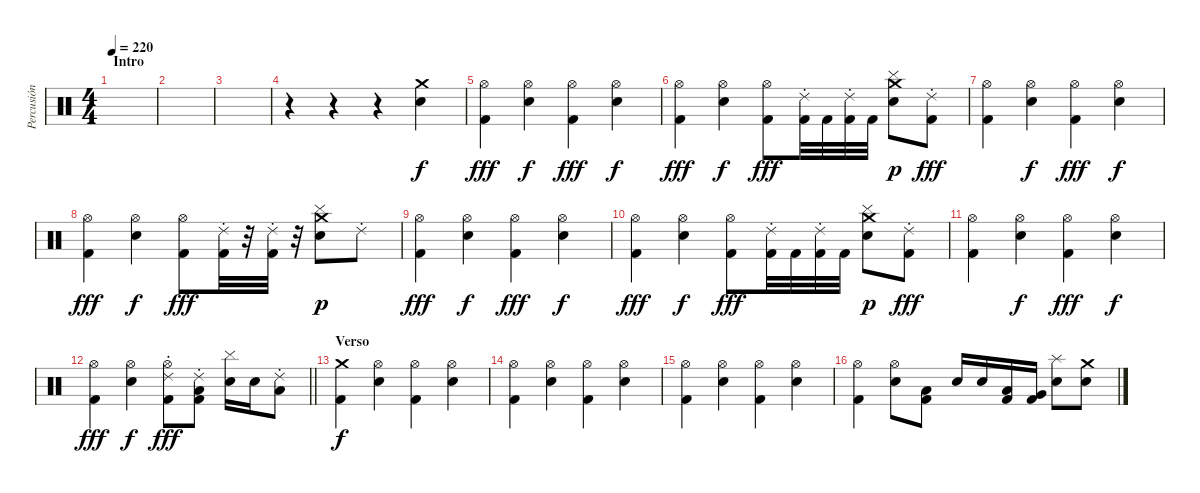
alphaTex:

\track ("Percusión" "Percusión") {instrument percussion}
\staff {score}
\articulation defaults
\ts (4 4)
\section ("" "Intro")
\tempo 220
\clef neutral
\ks c
|
|
|
r.4 r.4 r.4 ("Crash medium (hit)" "Snare (hit) 2").4 |
("Hi-Hat (open)" "Kick (hit) 2").4{dy fff} ("Hi-Hat (open)" "Snare (hit) 2").4{dy f} ("Hi-Hat (open)" "Kick (hit) 2").4{dy fff} ("Hi-Hat (open)" "Snare (hit) 2").4{dy f} |
("Hi-Hat (open)" "Kick (hit) 2").4{dy fff} ("Hi-Hat (open)" "Snare (hit) 2").4{dy f} ("Hi-Hat (open)" "Kick (hit) 2").8{dy fff} ("Ride (choke) 2" "Kick (hit) 2").32 "Kick (hit) 2".32 ("Ride (choke) 2" "Kick (hit) 2").32 "Kick (hit) 2".32 ("Crash medium (hit)" "Cymbal (hit)" "Snare (hit) 2").8{dy p} ("Ride (choke) 2" "Kick (hit) 2").8{dy fff} |
("Hi-Hat (open)" "Kick (hit) 2").4 ("Hi-Hat (open)" "Snare (hit) 2").4{dy f} ("Hi-Hat (open)" "Kick (hit) 2").4{dy fff} ("Hi-Hat (open)" "Snare (hit) 2").4{dy f} |
("Hi-Hat (open)" "Kick (hit) 2").4{dy fff} ("Hi-Hat (open)" "Snare (hit) 2").4{dy f} ("Hi-Hat (open)" "Kick (hit) 2").8{dy fff} ("Ride (choke) 2" "Kick (hit) 2").32 r.32 ("Ride (choke) 2" "Kick (hit) 2").32 r.32 ("Crash medium (hit)" "Cymbal (hit)" "Snare (hit) 2").8{dy p} "Ride (choke) 2".8 |
("Hi-Hat (open)" "Kick (hit) 2").4{dy fff} ("Hi-Hat (open)" "Snare (hit) 2").4{dy f} ("Hi-Hat (open)" "Kick (hit) 2").4{dy fff} ("Hi-Hat (open)" "Snare (hit) 2").4{dy f} |
("Hi-Hat (open)" "Kick (hit) 2").4{dy fff} ("Hi-Hat (open)" "Snare (hit) 2").4{dy f} ("Hi-Hat (open)" "Kick (hit) 2").8{dy fff} ("Ride (choke) 2" "Kick (hit) 2").32 "Kick (hit) 2".32 ("Ride (choke) 2" "Kick (hit) 2").32 "Kick (hit) 2".32 ("Crash medium (hit)" "Cymbal (hit)" "Snare (hit) 2").8{dy p} ("Ride (choke) 2" "Kick (hit) 2").8{dy fff} |
("Hi-Hat (open)" "Kick (hit) 2").4 ("Hi-Hat (open)" "Snare (hit) 2").4{dy f} ("Hi-Hat (open)" "Kick (hit) 2").4{dy fff} ("Hi-Hat (open)" "Snare (hit) 2").4{dy f} |
\barLineRight lightlight
("Hi-Hat (open)" "Kick (hit) 2").4{dy fff} ("Hi-Hat (open)" "Snare (hit) 2").4{dy f} ("Hi-Hat (open)" "Ride (choke) 2" "Kick (hit) 2").8{dy fff} ("Ride (choke) 2" "Low Floor Tom (hit)" "Kick (hit) 2").8 ("Cymbal (hit)" "Snare (hit) 2").16 "Snare (hit) 2".16 ("Ride (choke) 2" "Low Tom (hit)").8 |
\section ("" "Verso")
("Crash medium (hit)" "Kick (hit) 2").4{dy f} ("Hi-Hat (open)" "Snare (hit) 2").4 ("Hi-Hat (open)" "Kick (hit) 2").4 ("Hi-Hat (open)" "Snare (hit) 2").4 |
("Hi-Hat (open)" "Kick (hit) 2").4 ("Hi-Hat (open)" "Snare (hit) 2").4 ("Hi-Hat (open)" "Kick (hit) 2").4 ("Hi-Hat (open)" "Snare (hit) 2").4 |
("Hi-Hat (open)" "Kick (hit) 2").4 ("Hi-Hat (open)" "Snare (hit) 2").4 ("Hi-Hat (open)" "Kick (hit) 2").4 ("Hi-Hat (open)" "Snare (hit) 2").4 |
("Hi-Hat (open)" "Kick (hit) 2").4 ("Hi-Hat (open)" "Snare (hit) 2").8 ("Low Floor Tom (hit)" "Kick (hit) 2").8 "Snare (hit) 2".16 "Snare (hit) 2".16 ("Low Tom (hit)" "Kick (hit) 2").16 ("Very Low Tom (hit)" "Kick (hit) 2").16 ("Splash (hit)" "Snare (hit) 2").8 ("Crash medium (hit)" "Snare (hit) 2").8
